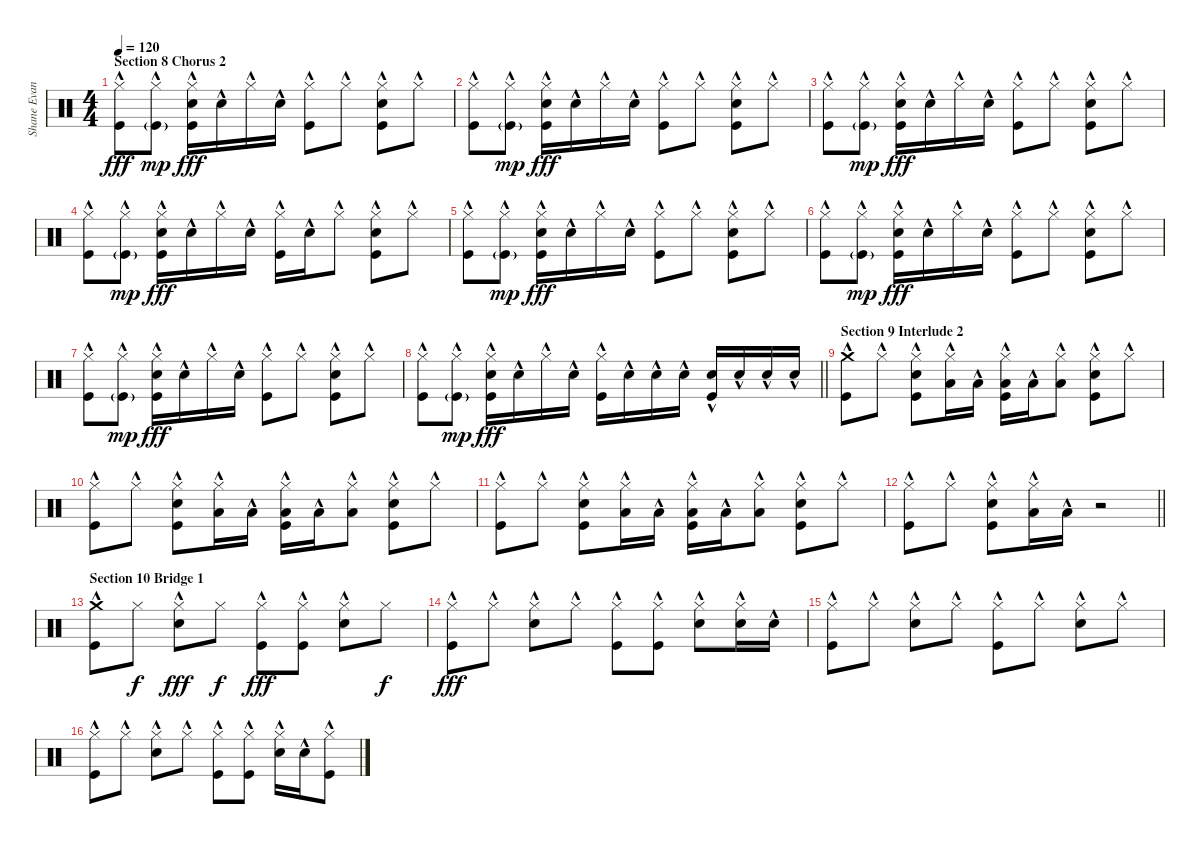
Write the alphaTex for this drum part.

\track ("Shane Evans" "Shane Evan") {instrument percussion}
\staff {score}
\articulation defaults
\ts (4 4)
\section ("" "Section 8 Chorus 2")
\tempo 120
\clef neutral
\ks c
("Hi-Hat (closed)"{hac} "Kick (hit)"{hac}).8{dy fff} ("Hi-Hat (closed)"{hac} "Kick (hit)"{g}).8{dy mp} ("Hi-Hat (closed)"{hac} "Electric Snare (hit)"{hac} "Kick (hit)"{hac}).16{dy fff} "Electric Snare (hit)"{hac}.16 "Hi-Hat (closed)"{hac}.16 "Electric Snare (hit)"{hac}.16 ("Hi-Hat (closed)"{hac} "Kick (hit)"{hac}).8 "Hi-Hat (closed)"{hac}.8 ("Hi-Hat (closed)"{hac} "Electric Snare (hit)"{hac} "Kick (hit)"{hac}).8 "Hi-Hat (closed)"{hac}.8 |
("Hi-Hat (closed)"{hac} "Kick (hit)"{hac}).8 ("Hi-Hat (closed)"{hac} "Kick (hit)"{g}).8{dy mp} ("Hi-Hat (closed)"{hac} "Electric Snare (hit)"{hac} "Kick (hit)"{hac}).16{dy fff} "Electric Snare (hit)"{hac}.16 "Hi-Hat (closed)"{hac}.16 "Electric Snare (hit)"{hac}.16 ("Hi-Hat (closed)"{hac} "Kick (hit)"{hac}).8 "Hi-Hat (closed)"{hac}.8 ("Hi-Hat (closed)"{hac} "Electric Snare (hit)"{hac} "Kick (hit)"{hac}).8 "Hi-Hat (closed)"{hac}.8 |
("Hi-Hat (closed)"{hac} "Kick (hit)"{hac}).8 ("Hi-Hat (closed)"{hac} "Kick (hit)"{g}).8{dy mp} ("Hi-Hat (closed)"{hac} "Electric Snare (hit)"{hac} "Kick (hit)"{hac}).16{dy fff} "Electric Snare (hit)"{hac}.16 "Hi-Hat (closed)"{hac}.16 "Electric Snare (hit)"{hac}.16 ("Hi-Hat (closed)"{hac} "Kick (hit)"{hac}).8 "Hi-Hat (closed)"{hac}.8 ("Hi-Hat (closed)"{hac} "Electric Snare (hit)"{hac} "Kick (hit)"{hac}).8 "Hi-Hat (closed)"{hac}.8 |
("Hi-Hat (closed)"{hac} "Kick (hit)"{hac}).8 ("Hi-Hat (closed)"{hac} "Kick (hit)"{g}).8{dy mp} ("Hi-Hat (closed)"{hac} "Electric Snare (hit)"{hac} "Kick (hit)"{hac}).16{dy fff} "Electric Snare (hit)"{hac}.16 "Hi-Hat (closed)"{hac}.16 "Electric Snare (hit)"{hac}.16 ("Hi-Hat (closed)"{hac} "Kick (hit)"{hac}).16 "Electric Snare (hit)"{hac}.16 "Hi-Hat (closed)"{hac}.8 ("Hi-Hat (closed)"{hac} "Electric Snare (hit)"{hac} "Kick (hit)"{hac}).8 "Hi-Hat (closed)"{hac}.8 |
("Hi-Hat (closed)"{hac} "Kick (hit)"{hac}).8 ("Hi-Hat (closed)"{hac} "Kick (hit)"{g}).8{dy mp} ("Hi-Hat (closed)"{hac} "Electric Snare (hit)"{hac} "Kick (hit)"{hac}).16{dy fff} "Electric Snare (hit)"{hac}.16 "Hi-Hat (closed)"{hac}.16 "Electric Snare (hit)"{hac}.16 ("Hi-Hat (closed)"{hac} "Kick (hit)"{hac}).8 "Hi-Hat (closed)"{hac}.8 ("Hi-Hat (closed)"{hac} "Electric Snare (hit)"{hac} "Kick (hit)"{hac}).8 "Hi-Hat (closed)"{hac}.8 |
("Hi-Hat (closed)"{hac} "Kick (hit)"{hac}).8 ("Hi-Hat (closed)"{hac} "Kick (hit)"{g}).8{dy mp} ("Hi-Hat (closed)"{hac} "Electric Snare (hit)"{hac} "Kick (hit)"{hac}).16{dy fff} "Electric Snare (hit)"{hac}.16 "Hi-Hat (closed)"{hac}.16 "Electric Snare (hit)"{hac}.16 ("Hi-Hat (closed)"{hac} "Kick (hit)"{hac}).8 "Hi-Hat (closed)"{hac}.8 ("Hi-Hat (closed)"{hac} "Electric Snare (hit)"{hac} "Kick (hit)"{hac}).8 "Hi-Hat (closed)"{hac}.8 |
("Hi-Hat (closed)"{hac} "Kick (hit)"{hac}).8 ("Hi-Hat (closed)"{hac} "Kick (hit)"{g}).8{dy mp} ("Hi-Hat (closed)"{hac} "Electric Snare (hit)"{hac} "Kick (hit)"{hac}).16{dy fff} "Electric Snare (hit)"{hac}.16 "Hi-Hat (closed)"{hac}.16 "Electric Snare (hit)"{hac}.16 ("Hi-Hat (closed)"{hac} "Kick (hit)"{hac}).8 "Hi-Hat (closed)"{hac}.8 ("Hi-Hat (closed)"{hac} "Electric Snare (hit)"{hac} "Kick (hit)"{hac}).8 "Hi-Hat (closed)"{hac}.8 |
\barLineRight lightlight
("Hi-Hat (closed)"{hac} "Kick (hit)"{hac}).8 ("Hi-Hat (closed)"{hac} "Kick (hit)"{g}).8{dy mp} ("Hi-Hat (closed)"{hac} "Electric Snare (hit)"{hac} "Kick (hit)"{hac}).16{dy fff} "Electric Snare (hit)"{hac}.16 "Hi-Hat (closed)"{hac}.16 "Electric Snare (hit)"{hac}.16 ("Hi-Hat (closed)"{hac} "Kick (hit)"{hac}).16 "Electric Snare (hit)"{hac}.16 "Electric Snare (hit)"{hac}.16 "Electric Snare (hit)"{hac}.16 ("Electric Snare (hit)"{hac} "Kick (hit)"{hac}).16 "Electric Snare (hit)"{hac}.16 "Electric Snare (hit)"{hac}.16 "Electric Snare (hit)"{hac}.16 |
\section ("" "Section 9 Interlude 2")
("Crash medium (hit)"{hac} "Kick (hit)"{hac}).8 "Hi-Hat (closed)"{hac}.8 ("Hi-Hat (closed)"{hac} "Electric Snare (hit)"{hac} "Kick (hit)"{hac}).8 ("Hi-Hat (closed)"{hac} "Low Tom (hit)"{hac}).16 "Low Tom (hit)"{hac}.16 ("Hi-Hat (closed)"{hac} "Low Tom (hit)"{hac} "Kick (hit)"{hac}).16 "Low Tom (hit)"{hac}.16 ("Hi-Hat (closed)"{hac} "Low Tom (hit)"{hac}).8 ("Hi-Hat (closed)"{hac} "Electric Snare (hit)"{hac} "Kick (hit)"{hac}).8 "Hi-Hat (closed)"{hac}.8 |
("Hi-Hat (closed)"{hac} "Kick (hit)"{hac}).8 "Hi-Hat (closed)"{hac}.8 ("Hi-Hat (closed)"{hac} "Electric Snare (hit)"{hac} "Kick (hit)"{hac}).8 ("Hi-Hat (closed)"{hac} "Low Tom (hit)"{hac}).16 "Low Tom (hit)"{hac}.16 ("Hi-Hat (closed)"{hac} "Low Tom (hit)"{hac} "Kick (hit)"{hac}).16 "Low Tom (hit)"{hac}.16 ("Hi-Hat (closed)"{hac} "Low Tom (hit)"{hac}).8 ("Hi-Hat (closed)"{hac} "Electric Snare (hit)"{hac} "Kick (hit)"{hac}).8 "Hi-Hat (closed)"{hac}.8 |
("Hi-Hat (closed)"{hac} "Kick (hit)"{hac}).8 "Hi-Hat (closed)"{hac}.8 ("Hi-Hat (closed)"{hac} "Electric Snare (hit)"{hac} "Kick (hit)"{hac}).8 ("Hi-Hat (closed)"{hac} "Low Tom (hit)"{hac}).16 "Low Tom (hit)"{hac}.16 ("Hi-Hat (closed)"{hac} "Low Tom (hit)"{hac} "Kick (hit)"{hac}).16 "Low Tom (hit)"{hac}.16 ("Hi-Hat (closed)"{hac} "Low Tom (hit)"{hac}).8 ("Hi-Hat (closed)"{hac} "Electric Snare (hit)"{hac} "Kick (hit)"{hac}).8 "Hi-Hat (closed)"{hac}.8 |
\barLineRight lightlight
("Hi-Hat (closed)"{hac} "Kick (hit)"{hac}).8 "Hi-Hat (closed)"{hac}.8 ("Hi-Hat (closed)"{hac} "Electric Snare (hit)"{hac} "Kick (hit)"{hac}).8 ("Hi-Hat (closed)"{hac} "Low Tom (hit)"{hac}).16 "Low Tom (hit)"{hac}.16 r.2 |
\section ("" "Section 10 Bridge 1")
("Crash medium (hit)"{hac} "Kick (hit)"{hac}).8 "Hi-Hat (closed)".8{dy f} ("Hi-Hat (closed)"{hac} "Electric Snare (hit)"{hac}).8{dy fff} "Hi-Hat (closed)".8{dy f} ("Hi-Hat (closed)"{hac} "Kick (hit)"{hac}).8{dy fff} ("Hi-Hat (closed)" "Kick (hit)"{hac}).8 ("Hi-Hat (closed)"{hac} "Electric Snare (hit)"{hac}).8 "Hi-Hat (closed)".8{dy f} |
("Hi-Hat (closed)"{hac} "Kick (hit)"{hac}).8{dy fff} "Hi-Hat (closed)"{hac}.8 ("Hi-Hat (closed)"{hac} "Electric Snare (hit)"{hac}).8 "Hi-Hat (closed)"{hac}.8 ("Hi-Hat (closed)"{hac} "Kick (hit)"{hac}).8 ("Hi-Hat (closed)"{hac} "Kick (hit)"{hac}).8 ("Hi-Hat (closed)"{hac} "Electric Snare (hit)"{hac}).8 ("Hi-Hat (closed)"{hac} "Electric Snare (hit)"{hac}).16 "Electric Snare (hit)"{hac}.16 |
("Hi-Hat (closed)"{hac} "Kick (hit)"{hac}).8 "Hi-Hat (closed)"{hac}.8 ("Hi-Hat (closed)"{hac} "Electric Snare (hit)"{hac}).8 "Hi-Hat (closed)"{hac}.8 ("Hi-Hat (closed)"{hac} "Kick (hit)"{hac}).8 "Hi-Hat (closed)"{hac}.8 ("Hi-Hat (closed)"{hac} "Electric Snare (hit)"{hac}).8 "Hi-Hat (closed)"{hac}.8 |
("Hi-Hat (closed)"{hac} "Kick (hit)"{hac}).8 "Hi-Hat (closed)"{hac}.8 ("Hi-Hat (closed)"{hac} "Electric Snare (hit)"{hac}).8 "Hi-Hat (closed)"{hac}.8 ("Hi-Hat (closed)"{hac} "Kick (hit)"{hac}).8 ("Hi-Hat (closed)"{hac} "Kick (hit)"{hac}).8 ("Hi-Hat (closed)"{hac} "Electric Snare (hit)"{hac}).16 "Electric Snare (hit)"{hac}.16 ("Hi-Hat (closed)"{hac} "Kick (hit)"{hac}).8
